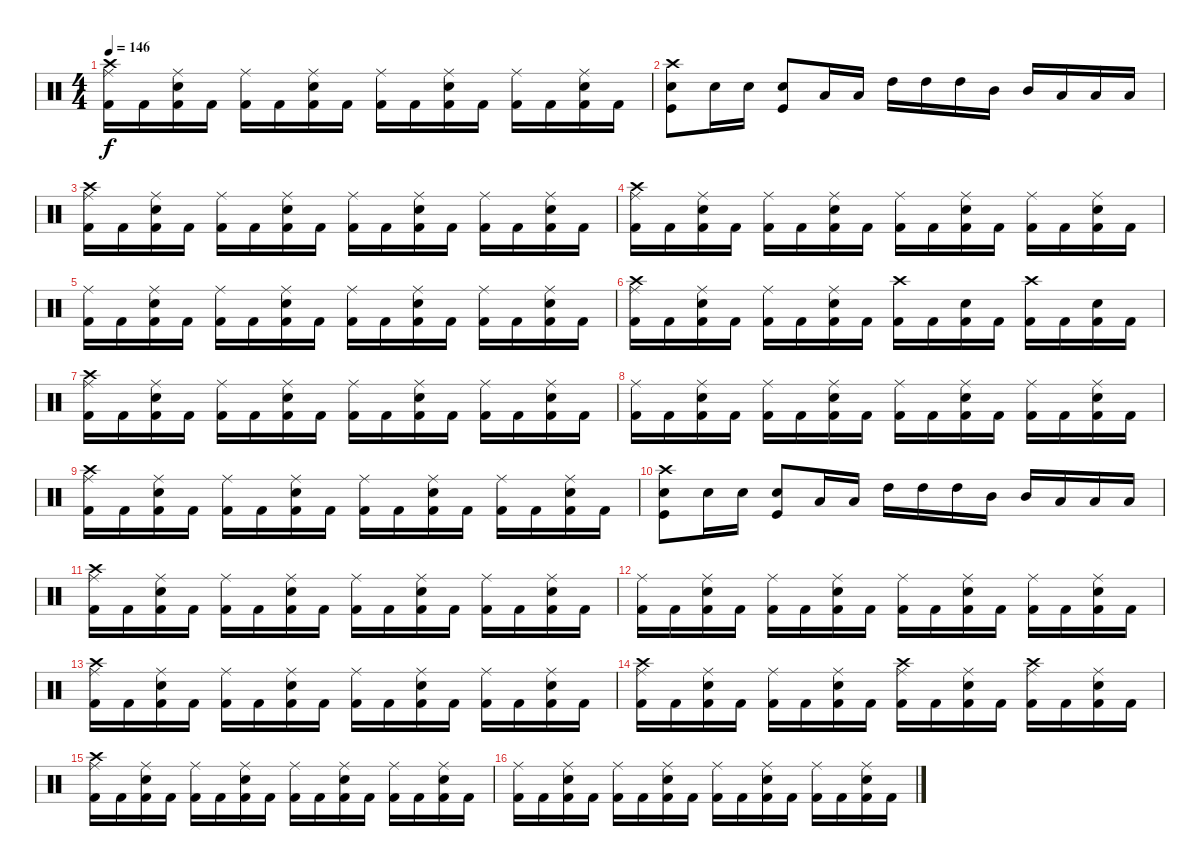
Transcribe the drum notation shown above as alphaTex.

\track "" {instrument percussion}
\staff {score}
\articulation defaults
\ts (4 4)
\tempo 146
\clef neutral
\ks c
("Crash high (hit)" "Ride (middle)" "Kick (hit) 2").16{dy f} "Kick (hit) 2".16 ("Electric Snare (hit)" "Ride (middle)" "Kick (hit) 2").16 "Kick (hit) 2".16 ("Ride (middle)" "Kick (hit) 2").16 "Kick (hit) 2".16 ("Electric Snare (hit)" "Ride (middle)" "Kick (hit) 2").16 "Kick (hit) 2".16 ("Ride (middle)" "Kick (hit) 2").16 "Kick (hit) 2".16 ("Electric Snare (hit)" "Ride (middle)" "Kick (hit) 2").16 "Kick (hit) 2".16 ("Ride (middle)" "Kick (hit) 2").16 "Kick (hit) 2".16 ("Electric Snare (hit)" "Ride (middle)" "Kick (hit) 2").16 "Kick (hit) 2".16 |
("Crash high (hit)" "Kick (hit)" "Snare (hit) 2").8 "Snare (hit) 2".16 "Snare (hit) 2".16 ("Snare (hit) 2" "Kick (hit)").8 "Low Tom (hit)".16 "Low Tom (hit)".16 "High Tom (hit)".16 "High Tom (hit)".16 "High Tom (hit)".16 "Mid Tom (hit)".16 "Mid Tom (hit)".16 "Low Tom (hit)".16 "Low Tom (hit)".16 "Low Tom (hit)".16 |
("Crash high (hit)" "Ride (middle)" "Kick (hit) 2").16 "Kick (hit) 2".16 ("Electric Snare (hit)" "Ride (middle)" "Kick (hit) 2").16 "Kick (hit) 2".16 ("Ride (middle)" "Kick (hit) 2").16 "Kick (hit) 2".16 ("Electric Snare (hit)" "Ride (middle)" "Kick (hit) 2").16 "Kick (hit) 2".16 ("Ride (middle)" "Kick (hit) 2").16 "Kick (hit) 2".16 ("Electric Snare (hit)" "Ride (middle)" "Kick (hit) 2").16 "Kick (hit) 2".16 ("Ride (middle)" "Kick (hit) 2").16 "Kick (hit) 2".16 ("Electric Snare (hit)" "Ride (middle)" "Kick (hit) 2").16 "Kick (hit) 2".16 |
("Crash high (hit)" "Ride (middle)" "Kick (hit) 2").16 "Kick (hit) 2".16 ("Electric Snare (hit)" "Ride (middle)" "Kick (hit) 2").16 "Kick (hit) 2".16 ("Ride (middle)" "Kick (hit) 2").16 "Kick (hit) 2".16 ("Electric Snare (hit)" "Ride (middle)" "Kick (hit) 2").16 "Kick (hit) 2".16 ("Ride (middle)" "Kick (hit) 2").16 "Kick (hit) 2".16 ("Electric Snare (hit)" "Ride (middle)" "Kick (hit) 2").16 "Kick (hit) 2".16 ("Ride (middle)" "Kick (hit) 2").16 "Kick (hit) 2".16 ("Electric Snare (hit)" "Ride (middle)" "Kick (hit) 2").16 "Kick (hit) 2".16 |
("Ride (middle)" "Kick (hit) 2").16 "Kick (hit) 2".16 ("Electric Snare (hit)" "Ride (middle)" "Kick (hit) 2").16 "Kick (hit) 2".16 ("Ride (middle)" "Kick (hit) 2").16 "Kick (hit) 2".16 ("Electric Snare (hit)" "Ride (middle)" "Kick (hit) 2").16 "Kick (hit) 2".16 ("Ride (middle)" "Kick (hit) 2").16 "Kick (hit) 2".16 ("Electric Snare (hit)" "Ride (middle)" "Kick (hit) 2").16 "Kick (hit) 2".16 ("Ride (middle)" "Kick (hit) 2").16 "Kick (hit) 2".16 ("Electric Snare (hit)" "Ride (middle)" "Kick (hit) 2").16 "Kick (hit) 2".16 |
("Crash high (hit)" "Ride (middle)" "Kick (hit) 2").16 "Kick (hit) 2".16 ("Electric Snare (hit)" "Ride (middle)" "Kick (hit) 2").16 "Kick (hit) 2".16 ("Ride (middle)" "Kick (hit) 2").16 "Kick (hit) 2".16 ("Electric Snare (hit)" "Ride (middle)" "Kick (hit) 2").16 "Kick (hit) 2".16 ("Kick (hit) 2" "Crash high (hit)").16 "Kick (hit) 2".16 ("Electric Snare (hit)" "Kick (hit) 2").16 "Kick (hit) 2".16 ("Kick (hit) 2" "Crash high (hit)").16 "Kick (hit) 2".16 ("Electric Snare (hit)" "Kick (hit) 2").16 "Kick (hit) 2".16 |
("Crash high (hit)" "Ride (middle)" "Kick (hit) 2").16 "Kick (hit) 2".16 ("Electric Snare (hit)" "Ride (middle)" "Kick (hit) 2").16 "Kick (hit) 2".16 ("Ride (middle)" "Kick (hit) 2").16 "Kick (hit) 2".16 ("Electric Snare (hit)" "Ride (middle)" "Kick (hit) 2").16 "Kick (hit) 2".16 ("Ride (middle)" "Kick (hit) 2").16 "Kick (hit) 2".16 ("Electric Snare (hit)" "Ride (middle)" "Kick (hit) 2").16 "Kick (hit) 2".16 ("Ride (middle)" "Kick (hit) 2").16 "Kick (hit) 2".16 ("Electric Snare (hit)" "Ride (middle)" "Kick (hit) 2").16 "Kick (hit) 2".16 |
("Ride (middle)" "Kick (hit) 2").16 "Kick (hit) 2".16 ("Electric Snare (hit)" "Ride (middle)" "Kick (hit) 2").16 "Kick (hit) 2".16 ("Ride (middle)" "Kick (hit) 2").16 "Kick (hit) 2".16 ("Electric Snare (hit)" "Ride (middle)" "Kick (hit) 2").16 "Kick (hit) 2".16 ("Ride (middle)" "Kick (hit) 2").16 "Kick (hit) 2".16 ("Electric Snare (hit)" "Ride (middle)" "Kick (hit) 2").16 "Kick (hit) 2".16 ("Ride (middle)" "Kick (hit) 2").16 "Kick (hit) 2".16 ("Electric Snare (hit)" "Ride (middle)" "Kick (hit) 2").16 "Kick (hit) 2".16 |
("Crash high (hit)" "Ride (middle)" "Kick (hit) 2").16 "Kick (hit) 2".16 ("Electric Snare (hit)" "Ride (middle)" "Kick (hit) 2").16 "Kick (hit) 2".16 ("Ride (middle)" "Kick (hit) 2").16 "Kick (hit) 2".16 ("Electric Snare (hit)" "Ride (middle)" "Kick (hit) 2").16 "Kick (hit) 2".16 ("Ride (middle)" "Kick (hit) 2").16 "Kick (hit) 2".16 ("Electric Snare (hit)" "Ride (middle)" "Kick (hit) 2").16 "Kick (hit) 2".16 ("Ride (middle)" "Kick (hit) 2").16 "Kick (hit) 2".16 ("Electric Snare (hit)" "Ride (middle)" "Kick (hit) 2").16 "Kick (hit) 2".16 |
("Crash high (hit)" "Kick (hit)" "Snare (hit) 2").8 "Snare (hit) 2".16 "Snare (hit) 2".16 ("Snare (hit) 2" "Kick (hit)").8 "Low Tom (hit)".16 "Low Tom (hit)".16 "High Tom (hit)".16 "High Tom (hit)".16 "High Tom (hit)".16 "Mid Tom (hit)".16 "Mid Tom (hit)".16 "Low Tom (hit)".16 "Low Tom (hit)".16 "Low Tom (hit)".16 |
("Crash high (hit)" "Ride (middle)" "Kick (hit) 2").16 "Kick (hit) 2".16 ("Electric Snare (hit)" "Ride (middle)" "Kick (hit) 2").16 "Kick (hit) 2".16 ("Ride (middle)" "Kick (hit) 2").16 "Kick (hit) 2".16 ("Electric Snare (hit)" "Ride (middle)" "Kick (hit) 2").16 "Kick (hit) 2".16 ("Ride (middle)" "Kick (hit) 2").16 "Kick (hit) 2".16 ("Electric Snare (hit)" "Ride (middle)" "Kick (hit) 2").16 "Kick (hit) 2".16 ("Ride (middle)" "Kick (hit) 2").16 "Kick (hit) 2".16 ("Electric Snare (hit)" "Ride (middle)" "Kick (hit) 2").16 "Kick (hit) 2".16 |
("Ride (middle)" "Kick (hit) 2").16 "Kick (hit) 2".16 ("Electric Snare (hit)" "Ride (middle)" "Kick (hit) 2").16 "Kick (hit) 2".16 ("Ride (middle)" "Kick (hit) 2").16 "Kick (hit) 2".16 ("Electric Snare (hit)" "Ride (middle)" "Kick (hit) 2").16 "Kick (hit) 2".16 ("Ride (middle)" "Kick (hit) 2").16 "Kick (hit) 2".16 ("Electric Snare (hit)" "Ride (middle)" "Kick (hit) 2").16 "Kick (hit) 2".16 ("Ride (middle)" "Kick (hit) 2").16 "Kick (hit) 2".16 ("Electric Snare (hit)" "Ride (middle)" "Kick (hit) 2").16 "Kick (hit) 2".16 |
("Crash high (hit)" "Ride (middle)" "Kick (hit) 2").16 "Kick (hit) 2".16 ("Electric Snare (hit)" "Ride (middle)" "Kick (hit) 2").16 "Kick (hit) 2".16 ("Ride (middle)" "Kick (hit) 2").16 "Kick (hit) 2".16 ("Electric Snare (hit)" "Ride (middle)" "Kick (hit) 2").16 "Kick (hit) 2".16 ("Ride (middle)" "Kick (hit) 2").16 "Kick (hit) 2".16 ("Electric Snare (hit)" "Ride (middle)" "Kick (hit) 2").16 "Kick (hit) 2".16 ("Ride (middle)" "Kick (hit) 2").16 "Kick (hit) 2".16 ("Electric Snare (hit)" "Ride (middle)" "Kick (hit) 2").16 "Kick (hit) 2".16 |
("Crash high (hit)" "Ride (middle)" "Kick (hit) 2").16 "Kick (hit) 2".16 ("Electric Snare (hit)" "Ride (middle)" "Kick (hit) 2").16 "Kick (hit) 2".16 ("Ride (middle)" "Kick (hit) 2").16 "Kick (hit) 2".16 ("Electric Snare (hit)" "Ride (middle)" "Kick (hit) 2").16 "Kick (hit) 2".16 ("Ride (middle)" "Kick (hit) 2" "Crash high (hit)").16 "Kick (hit) 2".16 ("Electric Snare (hit)" "Ride (middle)" "Kick (hit) 2").16 "Kick (hit) 2".16 ("Ride (middle)" "Kick (hit) 2" "Crash high (hit)").16 "Kick (hit) 2".16 ("Electric Snare (hit)" "Ride (middle)" "Kick (hit) 2").16 "Kick (hit) 2".16 |
("Crash high (hit)" "Ride (middle)" "Kick (hit) 2").16 "Kick (hit) 2".16 ("Electric Snare (hit)" "Ride (middle)" "Kick (hit) 2").16 "Kick (hit) 2".16 ("Ride (middle)" "Kick (hit) 2").16 "Kick (hit) 2".16 ("Electric Snare (hit)" "Ride (middle)" "Kick (hit) 2").16 "Kick (hit) 2".16 ("Ride (middle)" "Kick (hit) 2").16 "Kick (hit) 2".16 ("Electric Snare (hit)" "Ride (middle)" "Kick (hit) 2").16 "Kick (hit) 2".16 ("Ride (middle)" "Kick (hit) 2").16 "Kick (hit) 2".16 ("Electric Snare (hit)" "Ride (middle)" "Kick (hit) 2").16 "Kick (hit) 2".16 |
("Ride (middle)" "Kick (hit) 2").16 "Kick (hit) 2".16 ("Electric Snare (hit)" "Ride (middle)" "Kick (hit) 2").16 "Kick (hit) 2".16 ("Ride (middle)" "Kick (hit) 2").16 "Kick (hit) 2".16 ("Electric Snare (hit)" "Ride (middle)" "Kick (hit) 2").16 "Kick (hit) 2".16 ("Ride (middle)" "Kick (hit) 2").16 "Kick (hit) 2".16 ("Electric Snare (hit)" "Ride (middle)" "Kick (hit) 2").16 "Kick (hit) 2".16 ("Ride (middle)" "Kick (hit) 2").16 "Kick (hit) 2".16 ("Electric Snare (hit)" "Ride (middle)" "Kick (hit) 2").16 "Kick (hit) 2".16
